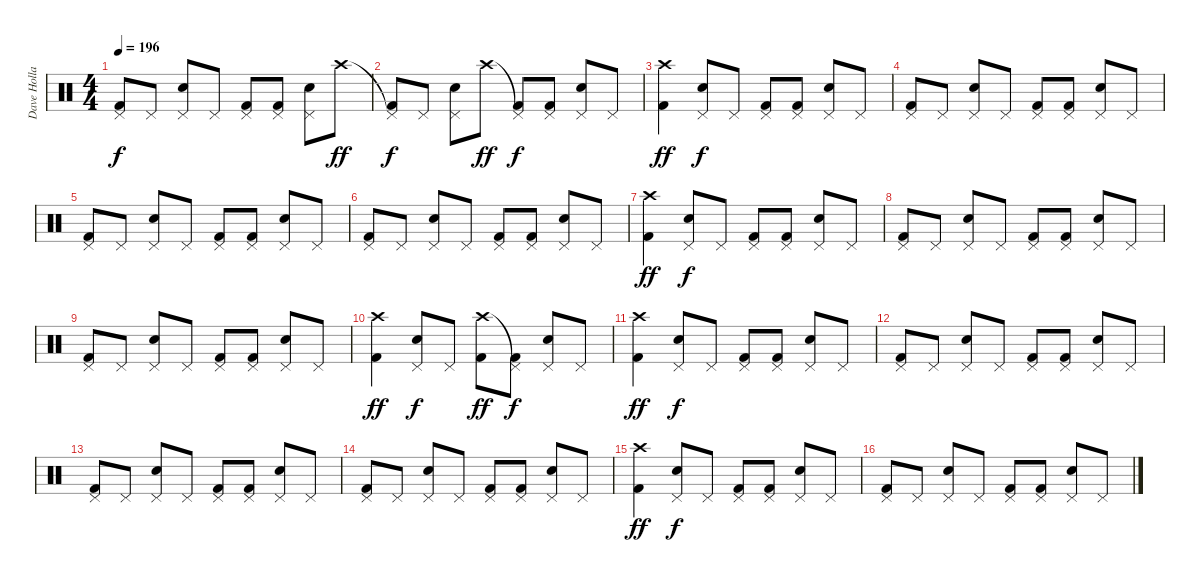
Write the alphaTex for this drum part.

\track ("Dave Holland" "Dave Holla") {instrument percussion}
\staff {score}
\articulation defaults
\ts (4 4)
\tempo 196
\clef neutral
\ks c
("Pedal Hi-Hat (hit)" "Kick (hit) 2").8{dy f} "Pedal Hi-Hat (hit)".8 ("Pedal Hi-Hat (hit)" "Snare (hit) 2").8 "Pedal Hi-Hat (hit)".8 ("Pedal Hi-Hat (hit)" "Kick (hit) 2").8 ("Pedal Hi-Hat (hit)" "Kick (hit) 2").8 ("Pedal Hi-Hat (hit)" "Snare (hit) 2").8 "Crash high (hit)".8{dy ff} |
("Pedal Hi-Hat (hit)"{t} "Kick (hit) 2").8{dy f} "Pedal Hi-Hat (hit)".8 ("Pedal Hi-Hat (hit)" "Snare (hit) 2").8 "Crash high (hit)".8{dy ff} ("Pedal Hi-Hat (hit)"{t} "Kick (hit) 2").8{dy f} ("Pedal Hi-Hat (hit)" "Kick (hit) 2").8 ("Pedal Hi-Hat (hit)" "Snare (hit) 2").8 "Pedal Hi-Hat (hit)".8 |
("Crash high (hit)" "Kick (hit) 2").4{dy ff} ("Pedal Hi-Hat (hit)" "Snare (hit) 2").8{dy f} "Pedal Hi-Hat (hit)".8 ("Pedal Hi-Hat (hit)" "Kick (hit) 2").8 ("Pedal Hi-Hat (hit)" "Kick (hit) 2").8 ("Pedal Hi-Hat (hit)" "Snare (hit) 2").8 "Pedal Hi-Hat (hit)".8 |
("Pedal Hi-Hat (hit)" "Kick (hit) 2").8 "Pedal Hi-Hat (hit)".8 ("Pedal Hi-Hat (hit)" "Snare (hit) 2").8 "Pedal Hi-Hat (hit)".8 ("Pedal Hi-Hat (hit)" "Kick (hit) 2").8 ("Pedal Hi-Hat (hit)" "Kick (hit) 2").8 ("Pedal Hi-Hat (hit)" "Snare (hit) 2").8 "Pedal Hi-Hat (hit)".8 |
("Pedal Hi-Hat (hit)" "Kick (hit) 2").8 "Pedal Hi-Hat (hit)".8 ("Pedal Hi-Hat (hit)" "Snare (hit) 2").8 "Pedal Hi-Hat (hit)".8 ("Pedal Hi-Hat (hit)" "Kick (hit) 2").8 ("Pedal Hi-Hat (hit)" "Kick (hit) 2").8 ("Pedal Hi-Hat (hit)" "Snare (hit) 2").8 "Pedal Hi-Hat (hit)".8 |
("Pedal Hi-Hat (hit)" "Kick (hit) 2").8 "Pedal Hi-Hat (hit)".8 ("Pedal Hi-Hat (hit)" "Snare (hit) 2").8 "Pedal Hi-Hat (hit)".8 ("Pedal Hi-Hat (hit)" "Kick (hit) 2").8 ("Pedal Hi-Hat (hit)" "Kick (hit) 2").8 ("Pedal Hi-Hat (hit)" "Snare (hit) 2").8 "Pedal Hi-Hat (hit)".8 |
("Crash high (hit)" "Kick (hit) 2").4{dy ff} ("Pedal Hi-Hat (hit)" "Snare (hit) 2").8{dy f} "Pedal Hi-Hat (hit)".8 ("Pedal Hi-Hat (hit)" "Kick (hit) 2").8 ("Pedal Hi-Hat (hit)" "Kick (hit) 2").8 ("Pedal Hi-Hat (hit)" "Snare (hit) 2").8 "Pedal Hi-Hat (hit)".8 |
("Pedal Hi-Hat (hit)" "Kick (hit) 2").8 "Pedal Hi-Hat (hit)".8 ("Pedal Hi-Hat (hit)" "Snare (hit) 2").8 "Pedal Hi-Hat (hit)".8 ("Pedal Hi-Hat (hit)" "Kick (hit) 2").8 ("Pedal Hi-Hat (hit)" "Kick (hit) 2").8 ("Pedal Hi-Hat (hit)" "Snare (hit) 2").8 "Pedal Hi-Hat (hit)".8 |
("Pedal Hi-Hat (hit)" "Kick (hit) 2").8 "Pedal Hi-Hat (hit)".8 ("Pedal Hi-Hat (hit)" "Snare (hit) 2").8 "Pedal Hi-Hat (hit)".8 ("Pedal Hi-Hat (hit)" "Kick (hit) 2").8 ("Pedal Hi-Hat (hit)" "Kick (hit) 2").8 ("Pedal Hi-Hat (hit)" "Snare (hit) 2").8 "Pedal Hi-Hat (hit)".8 |
("Crash high (hit)" "Kick (hit) 2").4{dy ff} ("Pedal Hi-Hat (hit)" "Snare (hit) 2").8{dy f} "Pedal Hi-Hat (hit)".8 ("Crash high (hit)" "Kick (hit) 2").8{dy ff} ("Pedal Hi-Hat (hit)"{t} "Kick (hit) 2").8{dy f} ("Pedal Hi-Hat (hit)" "Snare (hit) 2").8 "Pedal Hi-Hat (hit)".8 |
("Crash high (hit)" "Kick (hit) 2").4{dy ff} ("Pedal Hi-Hat (hit)" "Snare (hit) 2").8{dy f} "Pedal Hi-Hat (hit)".8 ("Pedal Hi-Hat (hit)" "Kick (hit) 2").8 ("Pedal Hi-Hat (hit)" "Kick (hit) 2").8 ("Pedal Hi-Hat (hit)" "Snare (hit) 2").8 "Pedal Hi-Hat (hit)".8 |
("Pedal Hi-Hat (hit)" "Kick (hit) 2").8 "Pedal Hi-Hat (hit)".8 ("Pedal Hi-Hat (hit)" "Snare (hit) 2").8 "Pedal Hi-Hat (hit)".8 ("Pedal Hi-Hat (hit)" "Kick (hit) 2").8 ("Pedal Hi-Hat (hit)" "Kick (hit) 2").8 ("Pedal Hi-Hat (hit)" "Snare (hit) 2").8 "Pedal Hi-Hat (hit)".8 |
("Pedal Hi-Hat (hit)" "Kick (hit) 2").8 "Pedal Hi-Hat (hit)".8 ("Pedal Hi-Hat (hit)" "Snare (hit) 2").8 "Pedal Hi-Hat (hit)".8 ("Pedal Hi-Hat (hit)" "Kick (hit) 2").8 ("Pedal Hi-Hat (hit)" "Kick (hit) 2").8 ("Pedal Hi-Hat (hit)" "Snare (hit) 2").8 "Pedal Hi-Hat (hit)".8 |
("Pedal Hi-Hat (hit)" "Kick (hit) 2").8 "Pedal Hi-Hat (hit)".8 ("Pedal Hi-Hat (hit)" "Snare (hit) 2").8 "Pedal Hi-Hat (hit)".8 ("Pedal Hi-Hat (hit)" "Kick (hit) 2").8 ("Pedal Hi-Hat (hit)" "Kick (hit) 2").8 ("Pedal Hi-Hat (hit)" "Snare (hit) 2").8 "Pedal Hi-Hat (hit)".8 |
("Crash high (hit)" "Kick (hit) 2").4{dy ff} ("Pedal Hi-Hat (hit)" "Snare (hit) 2").8{dy f} "Pedal Hi-Hat (hit)".8 ("Pedal Hi-Hat (hit)" "Kick (hit) 2").8 ("Pedal Hi-Hat (hit)" "Kick (hit) 2").8 ("Pedal Hi-Hat (hit)" "Snare (hit) 2").8 "Pedal Hi-Hat (hit)".8 |
("Pedal Hi-Hat (hit)" "Kick (hit) 2").8 "Pedal Hi-Hat (hit)".8 ("Pedal Hi-Hat (hit)" "Snare (hit) 2").8 "Pedal Hi-Hat (hit)".8 ("Pedal Hi-Hat (hit)" "Kick (hit) 2").8 ("Pedal Hi-Hat (hit)" "Kick (hit) 2").8 ("Pedal Hi-Hat (hit)" "Snare (hit) 2").8 "Pedal Hi-Hat (hit)".8
